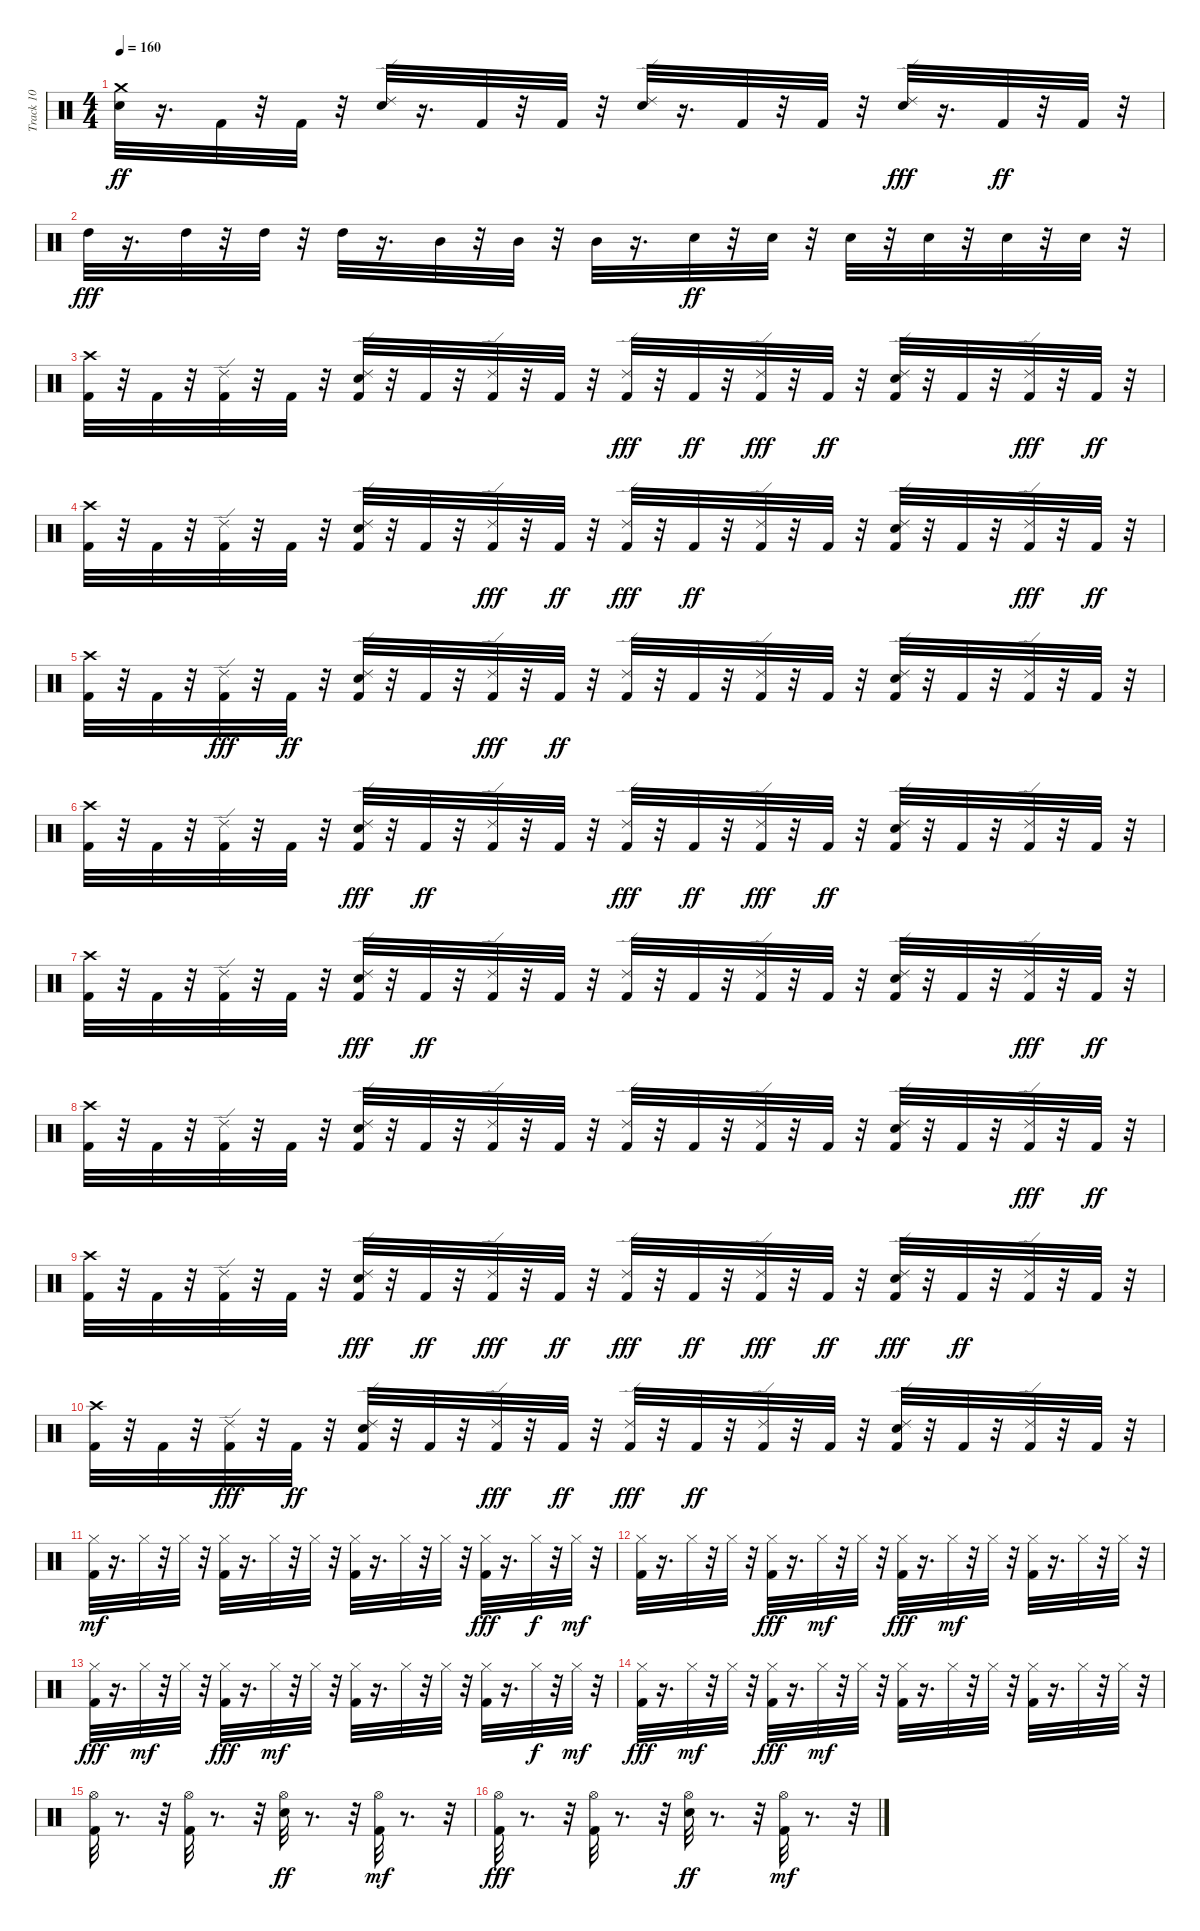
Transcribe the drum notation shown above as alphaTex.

\track ("Track 10" "Track 10") {instrument percussion}
\staff {score}
\articulation defaults
\ts (4 4)
\tempo 160
\clef neutral
\ks c
("Crash medium (hit)" "Electric Snare (hit)").32{dy ff} r.16{d} "Kick (hit) 2".32 r.32 "Kick (hit) 2".32 r.32 ("Ride (edge) 2" "Electric Snare (hit)").32 r.16{d} "Kick (hit) 2".32 r.32 "Kick (hit) 2".32 r.32 ("Ride (edge) 2" "Electric Snare (hit)").32 r.16{d} "Kick (hit) 2".32 r.32 "Kick (hit) 2".32 r.32 ("Electric Snare (hit)" "Ride (edge) 2").32{dy fff} r.16{d} "Kick (hit) 2".32{dy ff} r.32 "Kick (hit) 2".32 r.32 |
"High Tom (hit)".32{dy fff} r.16{d} "High Tom (hit)".32 r.32 "High Tom (hit)".32 r.32 "High Tom (hit)".32 r.16{d} "Mid Tom (hit)".32 r.32 "Mid Tom (hit)".32 r.32 "Mid Tom (hit)".32 r.16{d} "Electric Snare (hit)".32{dy ff} r.32 "Electric Snare (hit)".32 r.32 "Electric Snare (hit)".32 r.32 "Electric Snare (hit)".32 r.32 "Electric Snare (hit)".32 r.32 "Electric Snare (hit)".32 r.32 |
("Crash high (hit)" "Kick (hit) 2").32 r.32 "Kick (hit) 2".32 r.32 ("Ride (edge) 2" "Kick (hit) 2").32 r.32 "Kick (hit) 2".32 r.32 ("Ride (edge) 2" "Kick (hit) 2" "Electric Snare (hit)").32 r.32 "Kick (hit) 2".32 r.32 ("Ride (edge) 2" "Kick (hit) 2").32 r.32 "Kick (hit) 2".32 r.32 ("Kick (hit) 2" "Ride (edge) 2").32{dy fff} r.32 "Kick (hit) 2".32{dy ff} r.32 ("Kick (hit) 2" "Ride (edge) 2").32{dy fff} r.32 "Kick (hit) 2".32{dy ff} r.32 ("Kick (hit) 2" "Ride (edge) 2" "Electric Snare (hit)").32 r.32 "Kick (hit) 2".32 r.32 ("Kick (hit) 2" "Ride (edge) 2").32{dy fff} r.32 "Kick (hit) 2".32{dy ff} r.32 |
("Crash high (hit)" "Kick (hit) 2").32 r.32 "Kick (hit) 2".32 r.32 ("Ride (edge) 2" "Kick (hit) 2").32 r.32 "Kick (hit) 2".32 r.32 ("Kick (hit) 2" "Ride (edge) 2" "Electric Snare (hit)").32 r.32 "Kick (hit) 2".32 r.32 ("Kick (hit) 2" "Ride (edge) 2").32{dy fff} r.32 "Kick (hit) 2".32{dy ff} r.32 ("Kick (hit) 2" "Ride (edge) 2").32{dy fff} r.32 "Kick (hit) 2".32{dy ff} r.32 ("Ride (edge) 2" "Kick (hit) 2").32 r.32 "Kick (hit) 2".32 r.32 ("Electric Snare (hit)" "Ride (edge) 2" "Kick (hit) 2").32 r.32 "Kick (hit) 2".32 r.32 ("Kick (hit) 2" "Ride (edge) 2").32{dy fff} r.32 "Kick (hit) 2".32{dy ff} r.32 |
("Kick (hit) 2" "Crash high (hit)").32 r.32 "Kick (hit) 2".32 r.32 ("Kick (hit) 2" "Ride (edge) 2").32{dy fff} r.32 "Kick (hit) 2".32{dy ff} r.32 ("Electric Snare (hit)" "Ride (edge) 2" "Kick (hit) 2").32 r.32 "Kick (hit) 2".32 r.32 ("Kick (hit) 2" "Ride (edge) 2").32{dy fff} r.32 "Kick (hit) 2".32{dy ff} r.32 ("Ride (edge) 2" "Kick (hit) 2").32 r.32 "Kick (hit) 2".32 r.32 ("Ride (edge) 2" "Kick (hit) 2").32 r.32 "Kick (hit) 2".32 r.32 ("Kick (hit) 2" "Ride (edge) 2" "Electric Snare (hit)").32 r.32 "Kick (hit) 2".32 r.32 ("Ride (edge) 2" "Kick (hit) 2").32 r.32 "Kick (hit) 2".32 r.32 |
("Crash high (hit)" "Kick (hit) 2").32 r.32 "Kick (hit) 2".32 r.32 ("Ride (edge) 2" "Kick (hit) 2").32 r.32 "Kick (hit) 2".32 r.32 ("Kick (hit) 2" "Electric Snare (hit)" "Ride (edge) 2").32{dy fff} r.32 "Kick (hit) 2".32{dy ff} r.32 ("Ride (edge) 2" "Kick (hit) 2").32 r.32 "Kick (hit) 2".32 r.32 ("Kick (hit) 2" "Ride (edge) 2").32{dy fff} r.32 "Kick (hit) 2".32{dy ff} r.32 ("Kick (hit) 2" "Ride (edge) 2").32{dy fff} r.32 "Kick (hit) 2".32{dy ff} r.32 ("Ride (edge) 2" "Electric Snare (hit)" "Kick (hit) 2").32 r.32 "Kick (hit) 2".32 r.32 ("Ride (edge) 2" "Kick (hit) 2").32 r.32 "Kick (hit) 2".32 r.32 |
("Kick (hit) 2" "Crash high (hit)").32 r.32 "Kick (hit) 2".32 r.32 ("Ride (edge) 2" "Kick (hit) 2").32 r.32 "Kick (hit) 2".32 r.32 ("Electric Snare (hit)" "Kick (hit) 2" "Ride (edge) 2").32{dy fff} r.32 "Kick (hit) 2".32{dy ff} r.32 ("Ride (edge) 2" "Kick (hit) 2").32 r.32 "Kick (hit) 2".32 r.32 ("Ride (edge) 2" "Kick (hit) 2").32 r.32 "Kick (hit) 2".32 r.32 ("Ride (edge) 2" "Kick (hit) 2").32 r.32 "Kick (hit) 2".32 r.32 ("Kick (hit) 2" "Ride (edge) 2" "Electric Snare (hit)").32 r.32 "Kick (hit) 2".32 r.32 ("Kick (hit) 2" "Ride (edge) 2").32{dy fff} r.32 "Kick (hit) 2".32{dy ff} r.32 |
("Kick (hit) 2" "Crash high (hit)").32 r.32 "Kick (hit) 2".32 r.32 ("Ride (edge) 2" "Kick (hit) 2").32 r.32 "Kick (hit) 2".32 r.32 ("Kick (hit) 2" "Ride (edge) 2" "Electric Snare (hit)").32 r.32 "Kick (hit) 2".32 r.32 ("Ride (edge) 2" "Kick (hit) 2").32 r.32 "Kick (hit) 2".32 r.32 ("Ride (edge) 2" "Kick (hit) 2").32 r.32 "Kick (hit) 2".32 r.32 ("Ride (edge) 2" "Kick (hit) 2").32 r.32 "Kick (hit) 2".32 r.32 ("Ride (edge) 2" "Kick (hit) 2" "Electric Snare (hit)").32 r.32 "Kick (hit) 2".32 r.32 ("Kick (hit) 2" "Ride (edge) 2").32{dy fff} r.32 "Kick (hit) 2".32{dy ff} r.32 |
("Crash high (hit)" "Kick (hit) 2").32 r.32 "Kick (hit) 2".32 r.32 ("Ride (edge) 2" "Kick (hit) 2").32 r.32 "Kick (hit) 2".32 r.32 ("Electric Snare (hit)" "Kick (hit) 2" "Ride (edge) 2").32{dy fff} r.32 "Kick (hit) 2".32{dy ff} r.32 ("Kick (hit) 2" "Ride (edge) 2").32{dy fff} r.32 "Kick (hit) 2".32{dy ff} r.32 ("Kick (hit) 2" "Ride (edge) 2").32{dy fff} r.32 "Kick (hit) 2".32{dy ff} r.32 ("Kick (hit) 2" "Ride (edge) 2").32{dy fff} r.32 "Kick (hit) 2".32{dy ff} r.32 ("Electric Snare (hit)" "Kick (hit) 2" "Ride (edge) 2").32{dy fff} r.32 "Kick (hit) 2".32{dy ff} r.32 ("Ride (edge) 2" "Kick (hit) 2").32 r.32 "Kick (hit) 2".32 r.32 |
("Crash high (hit)" "Kick (hit) 2").32 r.32 "Kick (hit) 2".32 r.32 ("Kick (hit) 2" "Ride (edge) 2").32{dy fff} r.32 "Kick (hit) 2".32{dy ff} r.32 ("Kick (hit) 2" "Ride (edge) 2" "Electric Snare (hit)").32 r.32 "Kick (hit) 2".32 r.32 ("Kick (hit) 2" "Ride (edge) 2").32{dy fff} r.32 "Kick (hit) 2".32{dy ff} r.32 ("Kick (hit) 2" "Ride (edge) 2").32{dy fff} r.32 "Kick (hit) 2".32{dy ff} r.32 ("Ride (edge) 2" "Kick (hit) 2").32 r.32 "Kick (hit) 2".32 r.32 ("Kick (hit) 2" "Ride (edge) 2" "Electric Snare (hit)").32 r.32 "Kick (hit) 2".32 r.32 ("Ride (edge) 2" "Kick (hit) 2").32 r.32 "Kick (hit) 2".32 r.32 |
("Kick (hit) 2" "Hi-Hat (closed)").32{dy mf} r.16{d} "Hi-Hat (closed)".32 r.32 "Hi-Hat (closed)".32 r.32 ("Kick (hit) 2" "Hi-Hat (closed)").32 r.16{d} "Hi-Hat (closed)".32 r.32 "Hi-Hat (closed)".32 r.32 ("Kick (hit) 2" "Hi-Hat (closed)").32 r.16{d} "Hi-Hat (closed)".32 r.32 "Hi-Hat (closed)".32 r.32 ("Hi-Hat (closed)" "Kick (hit) 2").32{dy fff} r.16{d} "Hi-Hat (closed)".32{dy f} r.32 "Hi-Hat (closed)".32{dy mf} r.32 |
("Kick (hit) 2" "Hi-Hat (closed)").32 r.16{d} "Hi-Hat (closed)".32 r.32 "Hi-Hat (closed)".32 r.32 ("Hi-Hat (closed)" "Kick (hit) 2").32{dy fff} r.16{d} "Hi-Hat (closed)".32{dy mf} r.32 "Hi-Hat (closed)".32 r.32 ("Hi-Hat (closed)" "Kick (hit) 2").32{dy fff} r.16{d} "Hi-Hat (closed)".32{dy mf} r.32 "Hi-Hat (closed)".32 r.32 ("Kick (hit) 2" "Hi-Hat (closed)").32 r.16{d} "Hi-Hat (closed)".32 r.32 "Hi-Hat (closed)".32 r.32 |
("Hi-Hat (closed)" "Kick (hit) 2").32{dy fff} r.16{d} "Hi-Hat (closed)".32{dy mf} r.32 "Hi-Hat (closed)".32 r.32 ("Hi-Hat (closed)" "Kick (hit) 2").32{dy fff} r.16{d} "Hi-Hat (closed)".32{dy mf} r.32 "Hi-Hat (closed)".32 r.32 ("Kick (hit) 2" "Hi-Hat (closed)").32 r.16{d} "Hi-Hat (closed)".32 r.32 "Hi-Hat (closed)".32 r.32 ("Kick (hit) 2" "Hi-Hat (closed)").32 r.16{d} "Hi-Hat (closed)".32{dy f} r.32 "Hi-Hat (closed)".32{dy mf} r.32 |
("Hi-Hat (closed)" "Kick (hit) 2").32{dy fff} r.16{d} "Hi-Hat (closed)".32{dy mf} r.32 "Hi-Hat (closed)".32 r.32 ("Hi-Hat (closed)" "Kick (hit) 2").32{dy fff} r.16{d} "Hi-Hat (closed)".32{dy mf} r.32 "Hi-Hat (closed)".32 r.32 ("Kick (hit) 2" "Hi-Hat (closed)").32 r.16{d} "Hi-Hat (closed)".32 r.32 "Hi-Hat (closed)".32 r.32 ("Kick (hit) 2" "Hi-Hat (closed)").32 r.16{d} "Hi-Hat (closed)".32 r.32 "Hi-Hat (closed)".32 r.32 |
("Kick (hit) 2" "Hi-Hat (open)").32 r.8{d} r.32 ("Kick (hit) 2" "Hi-Hat (open)").32 r.8{d} r.32 ("Hi-Hat (open)" "Electric Snare (hit)").32{dy ff} r.8{d} r.32 ("Hi-Hat (open)" "Kick (hit) 2").32{dy mf} r.8{d} r.32 |
("Hi-Hat (open)" "Kick (hit) 2").32{dy fff} r.8{d} r.32 ("Hi-Hat (open)" "Kick (hit) 2").32 r.8{d} r.32 ("Hi-Hat (open)" "Electric Snare (hit)").32{dy ff} r.8{d} r.32 ("Hi-Hat (open)" "Kick (hit) 2").32{dy mf} r.8{d} r.32
